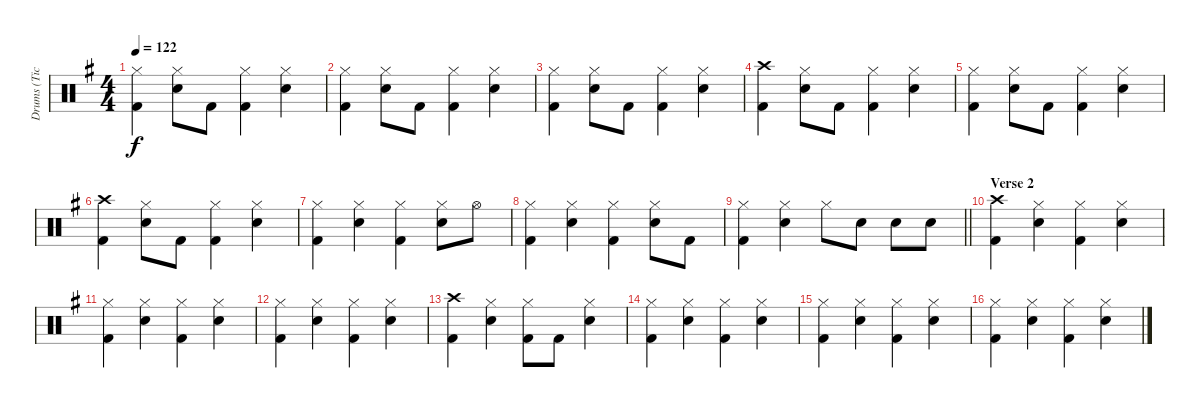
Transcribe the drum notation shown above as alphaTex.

\track ("Drums (Tico Torres)" "Drums (Tic") {instrument percussion}
\staff {score}
\articulation defaults
\ts (4 4)
\tempo 122
\clef neutral
\ks eminor
("Hi-Hat (closed)" "Kick (hit) 2").4{dy f} ("Hi-Hat (closed)" "Snare (hit) 2").8 "Kick (hit) 2".8 ("Hi-Hat (closed)" "Kick (hit) 2").4 ("Hi-Hat (closed)" "Snare (hit) 2").4 |
("Hi-Hat (closed)" "Kick (hit) 2").4 ("Hi-Hat (closed)" "Snare (hit) 2").8 "Kick (hit) 2".8 ("Hi-Hat (closed)" "Kick (hit) 2").4 ("Hi-Hat (closed)" "Snare (hit) 2").4 |
("Hi-Hat (closed)" "Kick (hit) 2").4 ("Hi-Hat (closed)" "Snare (hit) 2").8 "Kick (hit) 2".8 ("Hi-Hat (closed)" "Kick (hit) 2").4 ("Hi-Hat (closed)" "Snare (hit) 2").4 |
("Crash high (hit)" "Kick (hit) 2").4 ("Hi-Hat (closed)" "Snare (hit) 2").8 "Kick (hit) 2".8 ("Hi-Hat (closed)" "Kick (hit) 2").4 ("Hi-Hat (closed)" "Snare (hit) 2").4 |
("Hi-Hat (closed)" "Kick (hit) 2").4 ("Hi-Hat (closed)" "Snare (hit) 2").8 "Kick (hit) 2".8 ("Hi-Hat (closed)" "Kick (hit) 2").4 ("Hi-Hat (closed)" "Snare (hit) 2").4 |
("Crash high (hit)" "Kick (hit) 2").4 ("Hi-Hat (closed)" "Snare (hit) 2").8 "Kick (hit) 2".8 ("Hi-Hat (closed)" "Kick (hit) 2").4 ("Hi-Hat (closed)" "Snare (hit) 2").4 |
("Hi-Hat (closed)" "Kick (hit) 2").4 ("Hi-Hat (closed)" "Snare (hit) 2").4 ("Hi-Hat (closed)" "Kick (hit) 2").4 ("Hi-Hat (closed)" "Snare (hit) 2").8 "Hi-Hat (open)".8 |
("Hi-Hat (closed)" "Kick (hit) 2").4 ("Hi-Hat (closed)" "Snare (hit) 2").4 ("Hi-Hat (closed)" "Kick (hit) 2").4 ("Hi-Hat (closed)" "Snare (hit) 2").8 "Kick (hit) 2".8 |
\barLineRight lightlight
("Hi-Hat (closed)" "Kick (hit) 2").4 ("Hi-Hat (closed)" "Snare (hit) 2").4 "Hi-Hat (closed)".8 "Snare (hit) 2".8 "Snare (hit) 2".8 "Snare (hit) 2".8 |
\section ("" "Verse 2")
("Crash high (hit)" "Kick (hit) 2").4 ("Hi-Hat (closed)" "Snare (hit) 2").4 ("Hi-Hat (closed)" "Kick (hit) 2").4 ("Hi-Hat (closed)" "Snare (hit) 2").4 |
("Hi-Hat (closed)" "Kick (hit) 2").4 ("Hi-Hat (closed)" "Snare (hit) 2").4 ("Hi-Hat (closed)" "Kick (hit) 2").4 ("Hi-Hat (closed)" "Snare (hit) 2").4 |
("Hi-Hat (closed)" "Kick (hit) 2").4 ("Hi-Hat (closed)" "Snare (hit) 2").4 ("Hi-Hat (closed)" "Kick (hit) 2").4 ("Hi-Hat (closed)" "Snare (hit) 2").4 |
("Crash high (hit)" "Kick (hit) 2").4 ("Hi-Hat (closed)" "Snare (hit) 2").4 ("Hi-Hat (closed)" "Kick (hit) 2").8 "Kick (hit) 2".8 ("Hi-Hat (closed)" "Snare (hit) 2").4 |
("Hi-Hat (closed)" "Kick (hit) 2").4 ("Hi-Hat (closed)" "Snare (hit) 2").4 ("Hi-Hat (closed)" "Kick (hit) 2").4 ("Hi-Hat (closed)" "Snare (hit) 2").4 |
("Hi-Hat (closed)" "Kick (hit) 2").4 ("Hi-Hat (closed)" "Snare (hit) 2").4 ("Hi-Hat (closed)" "Kick (hit) 2").4 ("Hi-Hat (closed)" "Snare (hit) 2").4 |
("Hi-Hat (closed)" "Kick (hit) 2").4 ("Hi-Hat (closed)" "Snare (hit) 2").4 ("Hi-Hat (closed)" "Kick (hit) 2").4 ("Hi-Hat (closed)" "Snare (hit) 2").4
